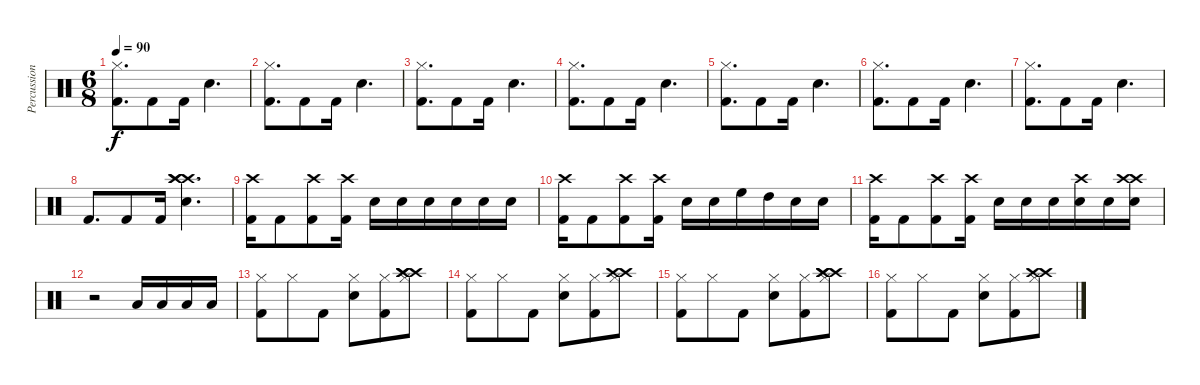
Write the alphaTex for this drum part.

\track ("Percussion" "Percussion") {instrument percussion}
\staff {score}
\articulation defaults
\ts (6 8)
\tempo 90
\clef neutral
\ks c
("Hi-Hat (closed)" "Kick (hit) 2").8{d dy f} "Kick (hit) 2".8 "Kick (hit) 2".16 "Electric Snare (hit)".4{d} |
("Hi-Hat (closed)" "Kick (hit) 2").8{d} "Kick (hit) 2".8 "Kick (hit) 2".16 "Electric Snare (hit)".4{d} |
("Hi-Hat (closed)" "Kick (hit) 2").8{d} "Kick (hit) 2".8 "Kick (hit) 2".16 "Electric Snare (hit)".4{d} |
("Hi-Hat (closed)" "Kick (hit) 2").8{d} "Kick (hit) 2".8 "Kick (hit) 2".16 "Electric Snare (hit)".4{d} |
("Hi-Hat (closed)" "Kick (hit) 2").8{d} "Kick (hit) 2".8 "Kick (hit) 2".16 "Electric Snare (hit)".4{d} |
("Hi-Hat (closed)" "Kick (hit) 2").8{d} "Kick (hit) 2".8 "Kick (hit) 2".16 "Electric Snare (hit)".4{d} |
("Hi-Hat (closed)" "Kick (hit) 2").8{d} "Kick (hit) 2".8 "Kick (hit) 2".16 "Electric Snare (hit)".4{d} |
"Kick (hit) 2".8{d} "Kick (hit) 2".8 "Kick (hit) 2".16 ("Crash high (hit)" "Electric Snare (hit)" "Crash high (hit)" "Crash high (hit)").4{d} |
("Crash high (hit)" "Kick (hit) 2").16 "Kick (hit) 2".8 ("Crash high (hit)" "Kick (hit) 2").8 ("Crash high (hit)" "Kick (hit) 2").16 "Electric Snare (hit)".16 "Electric Snare (hit)".16 "Electric Snare (hit)".16 "Electric Snare (hit)".16 "Electric Snare (hit)".16 "Electric Snare (hit)".16 |
("Crash high (hit)" "Kick (hit) 2").16 "Kick (hit) 2".8 ("Crash high (hit)" "Kick (hit) 2").8 ("Crash high (hit)" "Kick (hit) 2").16 "Electric Snare (hit)".16 "Electric Snare (hit)".16 "High Floor Tom (hit)".16 "High Tom (hit)".16 "Electric Snare (hit)".16 "Electric Snare (hit)".16 |
("Crash high (hit)" "Kick (hit) 2").16 "Kick (hit) 2".8 ("Crash high (hit)" "Kick (hit) 2").8 ("Crash high (hit)" "Kick (hit) 2").16 "Electric Snare (hit)".16 "Electric Snare (hit)".16 "Electric Snare (hit)".16 ("Electric Snare (hit)" "Crash high (hit)").16 "Electric Snare (hit)".16 ("Electric Snare (hit)" "Crash high (hit)" "Crash high (hit)").16 |
r.2 "Low Floor Tom (hit)".16 "Low Floor Tom (hit)".16 "Low Floor Tom (hit)".16 "Low Floor Tom (hit)".16 |
("Hi-Hat (closed)" "Kick (hit) 2").8 "Hi-Hat (closed)".8 "Kick (hit) 2".8 ("Hi-Hat (closed)" "Electric Snare (hit)").8 ("Hi-Hat (closed)" "Kick (hit) 2").8 ("Hi-Hat (closed)" "Crash high (hit)" "Crash high (hit)" "Crash high (hit)").8 |
("Hi-Hat (closed)" "Kick (hit) 2").8 "Hi-Hat (closed)".8 "Kick (hit) 2".8 ("Hi-Hat (closed)" "Electric Snare (hit)").8 ("Hi-Hat (closed)" "Kick (hit) 2").8 ("Hi-Hat (closed)" "Crash high (hit)" "Crash high (hit)").8 |
("Hi-Hat (closed)" "Kick (hit) 2").8 "Hi-Hat (closed)".8 "Kick (hit) 2".8 ("Hi-Hat (closed)" "Electric Snare (hit)").8 ("Hi-Hat (closed)" "Kick (hit) 2").8 ("Hi-Hat (closed)" "Crash high (hit)" "Crash high (hit)" "Crash high (hit)").8 |
("Hi-Hat (closed)" "Kick (hit) 2").8 "Hi-Hat (closed)".8 "Kick (hit) 2".8 ("Hi-Hat (closed)" "Electric Snare (hit)").8 ("Hi-Hat (closed)" "Kick (hit) 2").8 ("Hi-Hat (closed)" "Crash high (hit)" "Crash high (hit)").8
